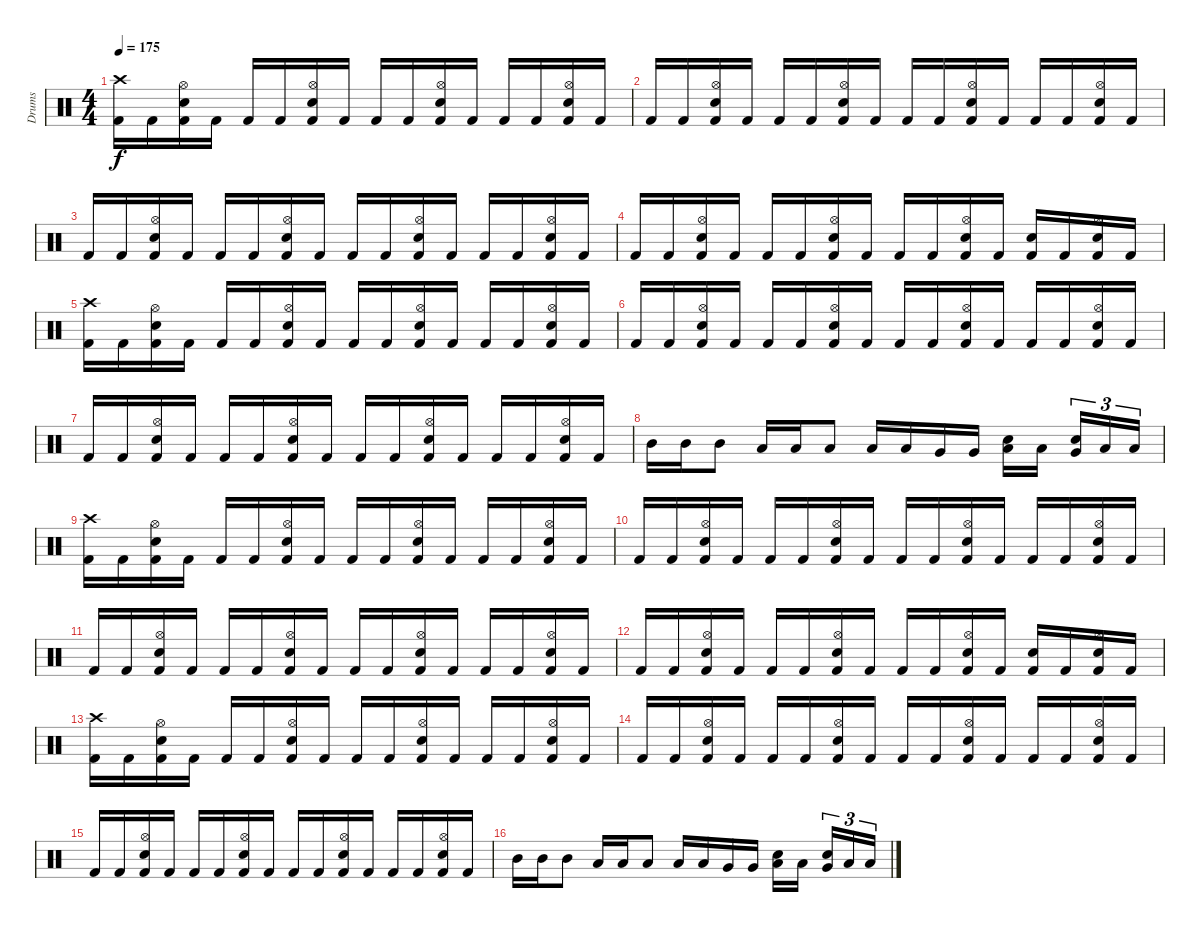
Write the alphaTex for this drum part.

\track ("Drums" "Drums") {instrument percussion}
\staff {score}
\articulation defaults
\ts (4 4)
\tempo 175
\clef neutral
\ks c
("Crash high (hit)" "Kick (hit) 2").16{dy f} "Kick (hit) 2".16 ("Hi-Hat (open)" "Electric Snare (hit)" "Kick (hit) 2").16 "Kick (hit) 2".16 "Kick (hit) 2".16 "Kick (hit) 2".16 ("Hi-Hat (open)" "Electric Snare (hit)" "Kick (hit) 2").16 "Kick (hit) 2".16 "Kick (hit) 2".16 "Kick (hit) 2".16 ("Hi-Hat (open)" "Electric Snare (hit)" "Kick (hit) 2").16 "Kick (hit) 2".16 "Kick (hit) 2".16 "Kick (hit) 2".16 ("Hi-Hat (open)" "Electric Snare (hit)" "Kick (hit) 2").16 "Kick (hit) 2".16 |
"Kick (hit) 2".16 "Kick (hit) 2".16 ("Hi-Hat (open)" "Electric Snare (hit)" "Kick (hit) 2").16 "Kick (hit) 2".16 "Kick (hit) 2".16 "Kick (hit) 2".16 ("Hi-Hat (open)" "Electric Snare (hit)" "Kick (hit) 2").16 "Kick (hit) 2".16 "Kick (hit) 2".16 "Kick (hit) 2".16 ("Hi-Hat (open)" "Electric Snare (hit)" "Kick (hit) 2").16 "Kick (hit) 2".16 "Kick (hit) 2".16 "Kick (hit) 2".16 ("Hi-Hat (open)" "Electric Snare (hit)" "Kick (hit) 2").16 "Kick (hit) 2".16 |
"Kick (hit) 2".16 "Kick (hit) 2".16 ("Hi-Hat (open)" "Electric Snare (hit)" "Kick (hit) 2").16 "Kick (hit) 2".16 "Kick (hit) 2".16 "Kick (hit) 2".16 ("Hi-Hat (open)" "Electric Snare (hit)" "Kick (hit) 2").16 "Kick (hit) 2".16 "Kick (hit) 2".16 "Kick (hit) 2".16 ("Hi-Hat (open)" "Electric Snare (hit)" "Kick (hit) 2").16 "Kick (hit) 2".16 "Kick (hit) 2".16 "Kick (hit) 2".16 ("Hi-Hat (open)" "Electric Snare (hit)" "Kick (hit) 2").16 "Kick (hit) 2".16 |
"Kick (hit) 2".16 "Kick (hit) 2".16 ("Hi-Hat (open)" "Electric Snare (hit)" "Kick (hit) 2").16 "Kick (hit) 2".16 "Kick (hit) 2".16 "Kick (hit) 2".16 ("Hi-Hat (open)" "Electric Snare (hit)" "Kick (hit) 2").16 "Kick (hit) 2".16 "Kick (hit) 2".16 "Kick (hit) 2".16 ("Hi-Hat (open)" "Electric Snare (hit)" "Kick (hit) 2").16 "Kick (hit) 2".16 ("Electric Snare (hit)" "Kick (hit) 2").16 "Kick (hit) 2".16 ("Hi-Hat (open)" "Electric Snare (hit)" "Kick (hit) 2").16 "Kick (hit) 2".16 |
("Crash high (hit)" "Kick (hit) 2").16 "Kick (hit) 2".16 ("Hi-Hat (open)" "Electric Snare (hit)" "Kick (hit) 2").16 "Kick (hit) 2".16 "Kick (hit) 2".16 "Kick (hit) 2".16 ("Hi-Hat (open)" "Electric Snare (hit)" "Kick (hit) 2").16 "Kick (hit) 2".16 "Kick (hit) 2".16 "Kick (hit) 2".16 ("Hi-Hat (open)" "Electric Snare (hit)" "Kick (hit) 2").16 "Kick (hit) 2".16 "Kick (hit) 2".16 "Kick (hit) 2".16 ("Hi-Hat (open)" "Electric Snare (hit)" "Kick (hit) 2").16 "Kick (hit) 2".16 |
"Kick (hit) 2".16 "Kick (hit) 2".16 ("Hi-Hat (open)" "Electric Snare (hit)" "Kick (hit) 2").16 "Kick (hit) 2".16 "Kick (hit) 2".16 "Kick (hit) 2".16 ("Hi-Hat (open)" "Electric Snare (hit)" "Kick (hit) 2").16 "Kick (hit) 2".16 "Kick (hit) 2".16 "Kick (hit) 2".16 ("Hi-Hat (open)" "Electric Snare (hit)" "Kick (hit) 2").16 "Kick (hit) 2".16 "Kick (hit) 2".16 "Kick (hit) 2".16 ("Hi-Hat (open)" "Electric Snare (hit)" "Kick (hit) 2").16 "Kick (hit) 2".16 |
"Kick (hit) 2".16 "Kick (hit) 2".16 ("Hi-Hat (open)" "Electric Snare (hit)" "Kick (hit) 2").16 "Kick (hit) 2".16 "Kick (hit) 2".16 "Kick (hit) 2".16 ("Hi-Hat (open)" "Electric Snare (hit)" "Kick (hit) 2").16 "Kick (hit) 2".16 "Kick (hit) 2".16 "Kick (hit) 2".16 ("Hi-Hat (open)" "Electric Snare (hit)" "Kick (hit) 2").16 "Kick (hit) 2".16 "Kick (hit) 2".16 "Kick (hit) 2".16 ("Hi-Hat (open)" "Electric Snare (hit)" "Kick (hit) 2").16 "Kick (hit) 2".16 |
"Mid Tom (hit)".16 "Mid Tom (hit)".16 "Mid Tom (hit)".8 "Low Tom (hit)".16 "Low Tom (hit)".16 "Low Tom (hit)".8 "Low Tom (hit)".16 "Low Tom (hit)".16 "Very Low Tom (hit)".16 "Very Low Tom (hit)".16 ("Low Tom (hit)" "Snare (hit) 2").16 "Low Tom (hit)".16 ("Very Low Tom (hit)" "Snare (hit) 2").16{tu (3 2)} "Low Floor Tom (hit)".16{tu (3 2)} "Low Floor Tom (hit)".16{tu (3 2)} |
("Crash high (hit)" "Kick (hit) 2").16 "Kick (hit) 2".16 ("Hi-Hat (open)" "Electric Snare (hit)" "Kick (hit) 2").16 "Kick (hit) 2".16 "Kick (hit) 2".16 "Kick (hit) 2".16 ("Hi-Hat (open)" "Electric Snare (hit)" "Kick (hit) 2").16 "Kick (hit) 2".16 "Kick (hit) 2".16 "Kick (hit) 2".16 ("Hi-Hat (open)" "Electric Snare (hit)" "Kick (hit) 2").16 "Kick (hit) 2".16 "Kick (hit) 2".16 "Kick (hit) 2".16 ("Hi-Hat (open)" "Electric Snare (hit)" "Kick (hit) 2").16 "Kick (hit) 2".16 |
"Kick (hit) 2".16 "Kick (hit) 2".16 ("Hi-Hat (open)" "Electric Snare (hit)" "Kick (hit) 2").16 "Kick (hit) 2".16 "Kick (hit) 2".16 "Kick (hit) 2".16 ("Hi-Hat (open)" "Electric Snare (hit)" "Kick (hit) 2").16 "Kick (hit) 2".16 "Kick (hit) 2".16 "Kick (hit) 2".16 ("Hi-Hat (open)" "Electric Snare (hit)" "Kick (hit) 2").16 "Kick (hit) 2".16 "Kick (hit) 2".16 "Kick (hit) 2".16 ("Hi-Hat (open)" "Electric Snare (hit)" "Kick (hit) 2").16 "Kick (hit) 2".16 |
"Kick (hit) 2".16 "Kick (hit) 2".16 ("Hi-Hat (open)" "Electric Snare (hit)" "Kick (hit) 2").16 "Kick (hit) 2".16 "Kick (hit) 2".16 "Kick (hit) 2".16 ("Hi-Hat (open)" "Electric Snare (hit)" "Kick (hit) 2").16 "Kick (hit) 2".16 "Kick (hit) 2".16 "Kick (hit) 2".16 ("Hi-Hat (open)" "Electric Snare (hit)" "Kick (hit) 2").16 "Kick (hit) 2".16 "Kick (hit) 2".16 "Kick (hit) 2".16 ("Hi-Hat (open)" "Electric Snare (hit)" "Kick (hit) 2").16 "Kick (hit) 2".16 |
"Kick (hit) 2".16 "Kick (hit) 2".16 ("Hi-Hat (open)" "Electric Snare (hit)" "Kick (hit) 2").16 "Kick (hit) 2".16 "Kick (hit) 2".16 "Kick (hit) 2".16 ("Hi-Hat (open)" "Electric Snare (hit)" "Kick (hit) 2").16 "Kick (hit) 2".16 "Kick (hit) 2".16 "Kick (hit) 2".16 ("Hi-Hat (open)" "Electric Snare (hit)" "Kick (hit) 2").16 "Kick (hit) 2".16 ("Electric Snare (hit)" "Kick (hit) 2").16 "Kick (hit) 2".16 ("Hi-Hat (open)" "Electric Snare (hit)" "Kick (hit) 2").16 "Kick (hit) 2".16 |
("Crash high (hit)" "Kick (hit) 2").16 "Kick (hit) 2".16 ("Hi-Hat (open)" "Electric Snare (hit)" "Kick (hit) 2").16 "Kick (hit) 2".16 "Kick (hit) 2".16 "Kick (hit) 2".16 ("Hi-Hat (open)" "Electric Snare (hit)" "Kick (hit) 2").16 "Kick (hit) 2".16 "Kick (hit) 2".16 "Kick (hit) 2".16 ("Hi-Hat (open)" "Electric Snare (hit)" "Kick (hit) 2").16 "Kick (hit) 2".16 "Kick (hit) 2".16 "Kick (hit) 2".16 ("Hi-Hat (open)" "Electric Snare (hit)" "Kick (hit) 2").16 "Kick (hit) 2".16 |
"Kick (hit) 2".16 "Kick (hit) 2".16 ("Hi-Hat (open)" "Electric Snare (hit)" "Kick (hit) 2").16 "Kick (hit) 2".16 "Kick (hit) 2".16 "Kick (hit) 2".16 ("Hi-Hat (open)" "Electric Snare (hit)" "Kick (hit) 2").16 "Kick (hit) 2".16 "Kick (hit) 2".16 "Kick (hit) 2".16 ("Hi-Hat (open)" "Electric Snare (hit)" "Kick (hit) 2").16 "Kick (hit) 2".16 "Kick (hit) 2".16 "Kick (hit) 2".16 ("Hi-Hat (open)" "Electric Snare (hit)" "Kick (hit) 2").16 "Kick (hit) 2".16 |
"Kick (hit) 2".16 "Kick (hit) 2".16 ("Hi-Hat (open)" "Electric Snare (hit)" "Kick (hit) 2").16 "Kick (hit) 2".16 "Kick (hit) 2".16 "Kick (hit) 2".16 ("Hi-Hat (open)" "Electric Snare (hit)" "Kick (hit) 2").16 "Kick (hit) 2".16 "Kick (hit) 2".16 "Kick (hit) 2".16 ("Hi-Hat (open)" "Electric Snare (hit)" "Kick (hit) 2").16 "Kick (hit) 2".16 "Kick (hit) 2".16 "Kick (hit) 2".16 ("Hi-Hat (open)" "Electric Snare (hit)" "Kick (hit) 2").16 "Kick (hit) 2".16 |
"Mid Tom (hit)".16 "Mid Tom (hit)".16 "Mid Tom (hit)".8 "Low Tom (hit)".16 "Low Tom (hit)".16 "Low Tom (hit)".8 "Low Tom (hit)".16 "Low Tom (hit)".16 "Very Low Tom (hit)".16 "Very Low Tom (hit)".16 ("Low Tom (hit)" "Snare (hit) 2").16 "Low Tom (hit)".16 ("Very Low Tom (hit)" "Snare (hit) 2").16{tu (3 2)} "Low Floor Tom (hit)".16{tu (3 2)} "Low Floor Tom (hit)".16{tu (3 2)}
